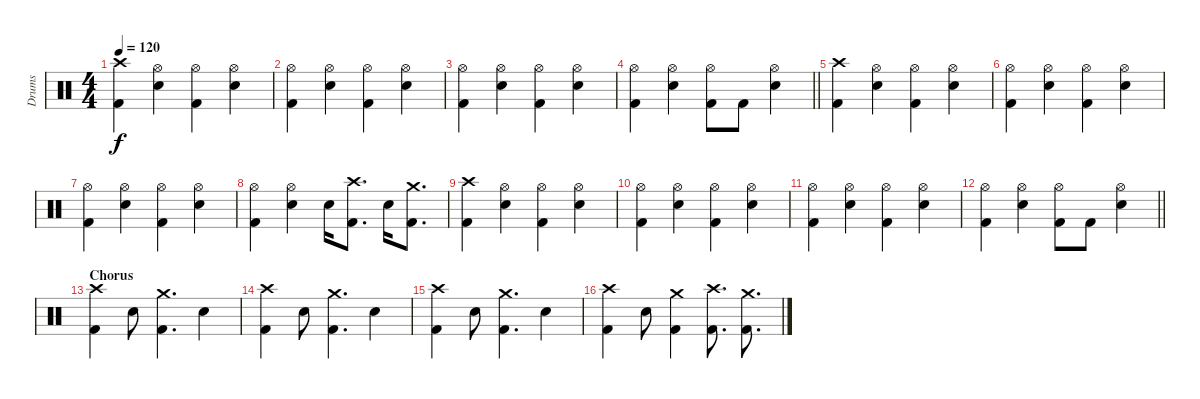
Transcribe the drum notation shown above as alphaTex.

\track ("Drums" "Drums") {instrument percussion}
\staff {score}
\articulation defaults
\ts (4 4)
\tempo 120
\clef neutral
\ks c
("Kick (hit) 2" "Crash high (hit)").4{dy f} ("Snare (hit) 2" "Hi-Hat (open)").4 ("Kick (hit) 2" "Hi-Hat (open)").4 ("Snare (hit) 2" "Hi-Hat (open)").4 |
("Kick (hit) 2" "Hi-Hat (open)").4 ("Snare (hit) 2" "Hi-Hat (open)").4 ("Kick (hit) 2" "Hi-Hat (open)").4 ("Snare (hit) 2" "Hi-Hat (open)").4 |
("Kick (hit) 2" "Hi-Hat (open)").4 ("Snare (hit) 2" "Hi-Hat (open)").4 ("Kick (hit) 2" "Hi-Hat (open)").4 ("Snare (hit) 2" "Hi-Hat (open)").4 |
\barLineRight lightlight
("Kick (hit) 2" "Hi-Hat (open)").4 ("Snare (hit) 2" "Hi-Hat (open)").4 ("Kick (hit) 2" "Hi-Hat (open)").8 "Kick (hit) 2".8 ("Snare (hit) 2" "Hi-Hat (open)").4 |
("Kick (hit) 2" "Crash high (hit)").4 ("Snare (hit) 2" "Hi-Hat (open)").4 ("Kick (hit) 2" "Hi-Hat (open)").4 ("Snare (hit) 2" "Hi-Hat (open)").4 |
("Kick (hit) 2" "Hi-Hat (open)").4 ("Snare (hit) 2" "Hi-Hat (open)").4 ("Kick (hit) 2" "Hi-Hat (open)").4 ("Snare (hit) 2" "Hi-Hat (open)").4 |
("Kick (hit) 2" "Hi-Hat (open)").4 ("Snare (hit) 2" "Hi-Hat (open)").4 ("Kick (hit) 2" "Hi-Hat (open)").4 ("Snare (hit) 2" "Hi-Hat (open)").4 |
("Kick (hit) 2" "Hi-Hat (open)").4 ("Snare (hit) 2" "Hi-Hat (open)").4 "Snare (hit) 2".16 ("Kick (hit) 2" "Crash high (hit)").8{d} "Snare (hit) 2".16 ("Kick (hit) 2" "Crash medium (hit)").8{d} |
("Kick (hit) 2" "Crash high (hit)").4 ("Snare (hit) 2" "Hi-Hat (open)").4 ("Kick (hit) 2" "Hi-Hat (open)").4 ("Snare (hit) 2" "Hi-Hat (open)").4 |
("Kick (hit) 2" "Hi-Hat (open)").4 ("Snare (hit) 2" "Hi-Hat (open)").4 ("Kick (hit) 2" "Hi-Hat (open)").4 ("Snare (hit) 2" "Hi-Hat (open)").4 |
("Kick (hit) 2" "Hi-Hat (open)").4 ("Snare (hit) 2" "Hi-Hat (open)").4 ("Kick (hit) 2" "Hi-Hat (open)").4 ("Snare (hit) 2" "Hi-Hat (open)").4 |
\barLineRight lightlight
("Kick (hit) 2" "Hi-Hat (open)").4 ("Snare (hit) 2" "Hi-Hat (open)").4 ("Kick (hit) 2" "Hi-Hat (open)").8 "Kick (hit) 2".8 ("Snare (hit) 2" "Hi-Hat (open)").4 |
\section ("" "Chorus")
("Kick (hit) 2" "Crash high (hit)").4 "Snare (hit) 2".8 ("Kick (hit) 2" "Crash medium (hit)").4{d} "Snare (hit) 2".4 |
("Kick (hit) 2" "Crash high (hit)").4 "Snare (hit) 2".8 ("Kick (hit) 2" "Crash medium (hit)").4{d} "Snare (hit) 2".4 |
("Kick (hit) 2" "Crash high (hit)").4 "Snare (hit) 2".8 ("Kick (hit) 2" "Crash medium (hit)").4{d} "Snare (hit) 2".4 |
("Kick (hit) 2" "Crash high (hit)").4 "Snare (hit) 2".8 ("Kick (hit) 2" "Crash medium (hit)").4 ("Kick (hit) 2" "Crash high (hit)").8{d} ("Kick (hit) 2" "Crash medium (hit)").8{d}
